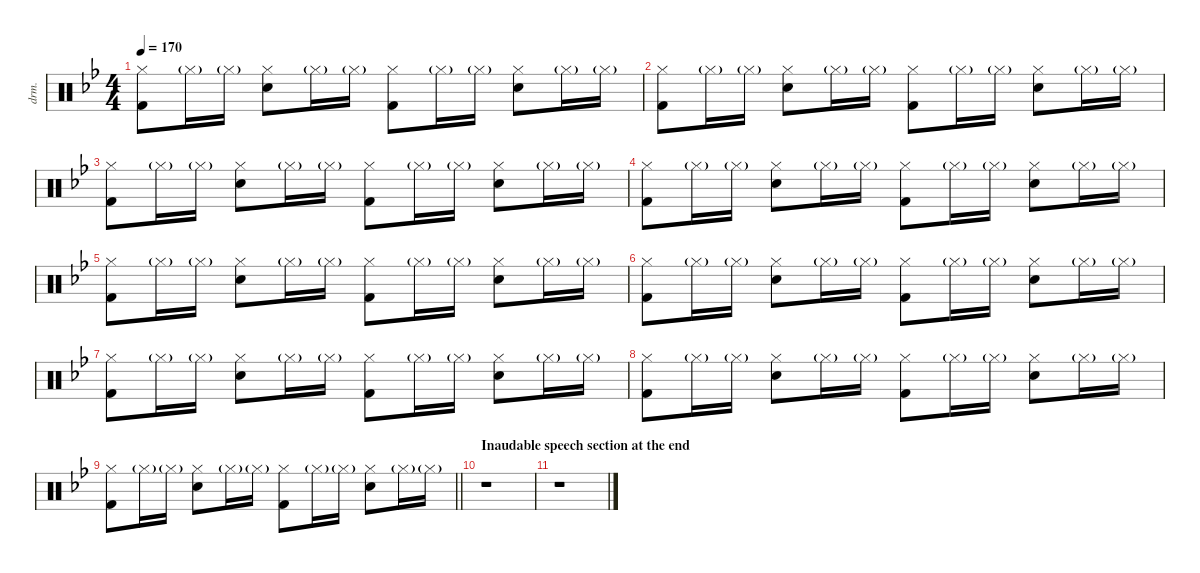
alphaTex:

\defaultSystemsLayout 4
\hideDynamics
\bracketExtendMode nobrackets
\otherSystemsTrackNameOrientation horizontal
\track ("Drums" "drm.") {instrument percussion}
\staff {score}
\articulation defaults
\ts (4 4)
\tempo 170
\clef neutral
\ks bb
("Hi-Hat (closed)"{acc forcenatural} "Kick (hit) 2"{acc forcenatural}).8{dy f beam Down} "Hi-Hat (closed)"{g acc forcenatural}.16{dy mf beam Down} "Hi-Hat (closed)"{g acc forcenatural}.16{beam Down} ("Hi-Hat (closed)"{acc forcenatural} "Snare (hit) 2"{acc forcenatural}).8{dy mp beam Down} "Hi-Hat (closed)"{g acc forcenatural}.16{dy mf beam Down} "Hi-Hat (closed)"{g acc forcenatural}.16{beam Down} ("Hi-Hat (closed)"{acc forcenatural} "Kick (hit) 2"{acc forcenatural}).8{dy f beam Down} "Hi-Hat (closed)"{g acc forcenatural}.16{dy mf beam Down} "Hi-Hat (closed)"{g acc forcenatural}.16{beam Down} ("Hi-Hat (closed)"{acc forcenatural} "Snare (hit) 2"{acc forcenatural}).8{dy mp beam Down} "Hi-Hat (closed)"{g acc forcenatural}.16{dy mf beam Down} "Hi-Hat (closed)"{g acc forcenatural}.16{beam Down} |
("Hi-Hat (closed)"{acc forcenatural} "Kick (hit) 2"{acc forcenatural}).8{dy f beam Down} "Hi-Hat (closed)"{g acc forcenatural}.16{dy mf beam Down} "Hi-Hat (closed)"{g acc forcenatural}.16{beam Down} ("Hi-Hat (closed)"{acc forcenatural} "Snare (hit) 2"{acc forcenatural}).8{dy mp beam Down} "Hi-Hat (closed)"{g acc forcenatural}.16{dy mf beam Down} "Hi-Hat (closed)"{g acc forcenatural}.16{beam Down} ("Hi-Hat (closed)"{acc forcenatural} "Kick (hit) 2"{acc forcenatural}).8{dy f beam Down} "Hi-Hat (closed)"{g acc forcenatural}.16{dy mf beam Down} "Hi-Hat (closed)"{g acc forcenatural}.16{beam Down} ("Hi-Hat (closed)"{acc forcenatural} "Snare (hit) 2"{acc forcenatural}).8{dy mp beam Down} "Hi-Hat (closed)"{g acc forcenatural}.16{dy mf beam Down} "Hi-Hat (closed)"{g acc forcenatural}.16{beam Down} |
("Hi-Hat (closed)"{acc forcenatural} "Kick (hit) 2"{acc forcenatural}).8{dy f beam Down} "Hi-Hat (closed)"{g acc forcenatural}.16{dy mf beam Down} "Hi-Hat (closed)"{g acc forcenatural}.16{beam Down} ("Hi-Hat (closed)"{acc forcenatural} "Snare (hit) 2"{acc forcenatural}).8{dy mp beam Down} "Hi-Hat (closed)"{g acc forcenatural}.16{dy mf beam Down} "Hi-Hat (closed)"{g acc forcenatural}.16{beam Down} ("Hi-Hat (closed)"{acc forcenatural} "Kick (hit) 2"{acc forcenatural}).8{dy f beam Down} "Hi-Hat (closed)"{g acc forcenatural}.16{dy mf beam Down} "Hi-Hat (closed)"{g acc forcenatural}.16{beam Down} ("Hi-Hat (closed)"{acc forcenatural} "Snare (hit) 2"{acc forcenatural}).8{dy mp beam Down} "Hi-Hat (closed)"{g acc forcenatural}.16{dy mf beam Down} "Hi-Hat (closed)"{g acc forcenatural}.16{beam Down} |
("Hi-Hat (closed)"{acc forcenatural} "Kick (hit) 2"{acc forcenatural}).8{dy f beam Down} "Hi-Hat (closed)"{g acc forcenatural}.16{dy mf beam Down} "Hi-Hat (closed)"{g acc forcenatural}.16{beam Down} ("Hi-Hat (closed)"{acc forcenatural} "Snare (hit) 2"{acc forcenatural}).8{dy mp beam Down} "Hi-Hat (closed)"{g acc forcenatural}.16{dy mf beam Down} "Hi-Hat (closed)"{g acc forcenatural}.16{beam Down} ("Hi-Hat (closed)"{acc forcenatural} "Kick (hit) 2"{acc forcenatural}).8{dy f beam Down} "Hi-Hat (closed)"{g acc forcenatural}.16{dy mf beam Down} "Hi-Hat (closed)"{g acc forcenatural}.16{beam Down} ("Hi-Hat (closed)"{acc forcenatural} "Snare (hit) 2"{acc forcenatural}).8{dy mp beam Down} "Hi-Hat (closed)"{g acc forcenatural}.16{dy mf beam Down} "Hi-Hat (closed)"{g acc forcenatural}.16{beam Down} |
("Hi-Hat (closed)"{acc forcenatural} "Kick (hit) 2"{acc forcenatural}).8{dy f beam Down} "Hi-Hat (closed)"{g acc forcenatural}.16{dy mf beam Down} "Hi-Hat (closed)"{g acc forcenatural}.16{beam Down} ("Hi-Hat (closed)"{acc forcenatural} "Snare (hit) 2"{acc forcenatural}).8{dy mp beam Down} "Hi-Hat (closed)"{g acc forcenatural}.16{dy mf beam Down} "Hi-Hat (closed)"{g acc forcenatural}.16{beam Down} ("Hi-Hat (closed)"{acc forcenatural} "Kick (hit) 2"{acc forcenatural}).8{dy f beam Down} "Hi-Hat (closed)"{g acc forcenatural}.16{dy mf beam Down} "Hi-Hat (closed)"{g acc forcenatural}.16{beam Down} ("Hi-Hat (closed)"{acc forcenatural} "Snare (hit) 2"{acc forcenatural}).8{dy mp beam Down} "Hi-Hat (closed)"{g acc forcenatural}.16{dy mf beam Down} "Hi-Hat (closed)"{g acc forcenatural}.16{beam Down} |
("Hi-Hat (closed)"{acc forcenatural} "Kick (hit) 2"{acc forcenatural}).8{dy f beam Down} "Hi-Hat (closed)"{g acc forcenatural}.16{dy mf beam Down} "Hi-Hat (closed)"{g acc forcenatural}.16{beam Down} ("Hi-Hat (closed)"{acc forcenatural} "Snare (hit) 2"{acc forcenatural}).8{dy mp beam Down} "Hi-Hat (closed)"{g acc forcenatural}.16{dy mf beam Down} "Hi-Hat (closed)"{g acc forcenatural}.16{beam Down} ("Hi-Hat (closed)"{acc forcenatural} "Kick (hit) 2"{acc forcenatural}).8{dy f beam Down} "Hi-Hat (closed)"{g acc forcenatural}.16{dy mf beam Down} "Hi-Hat (closed)"{g acc forcenatural}.16{beam Down} ("Hi-Hat (closed)"{acc forcenatural} "Snare (hit) 2"{acc forcenatural}).8{dy mp beam Down} "Hi-Hat (closed)"{g acc forcenatural}.16{dy mf beam Down} "Hi-Hat (closed)"{g acc forcenatural}.16{beam Down} |
("Hi-Hat (closed)"{acc forcenatural} "Kick (hit) 2"{acc forcenatural}).8{dy f beam Down} "Hi-Hat (closed)"{g acc forcenatural}.16{dy mf beam Down} "Hi-Hat (closed)"{g acc forcenatural}.16{beam Down} ("Hi-Hat (closed)"{acc forcenatural} "Snare (hit) 2"{acc forcenatural}).8{dy mp beam Down} "Hi-Hat (closed)"{g acc forcenatural}.16{dy mf beam Down} "Hi-Hat (closed)"{g acc forcenatural}.16{beam Down} ("Hi-Hat (closed)"{acc forcenatural} "Kick (hit) 2"{acc forcenatural}).8{dy f beam Down} "Hi-Hat (closed)"{g acc forcenatural}.16{dy mf beam Down} "Hi-Hat (closed)"{g acc forcenatural}.16{beam Down} ("Hi-Hat (closed)"{acc forcenatural} "Snare (hit) 2"{acc forcenatural}).8{dy mp beam Down} "Hi-Hat (closed)"{g acc forcenatural}.16{dy mf beam Down} "Hi-Hat (closed)"{g acc forcenatural}.16{beam Down} |
("Hi-Hat (closed)"{acc forcenatural} "Kick (hit) 2"{acc forcenatural}).8{dy f beam Down} "Hi-Hat (closed)"{g acc forcenatural}.16{dy mf beam Down} "Hi-Hat (closed)"{g acc forcenatural}.16{beam Down} ("Hi-Hat (closed)"{acc forcenatural} "Snare (hit) 2"{acc forcenatural}).8{dy mp beam Down} "Hi-Hat (closed)"{g acc forcenatural}.16{dy mf beam Down} "Hi-Hat (closed)"{g acc forcenatural}.16{beam Down} ("Hi-Hat (closed)"{acc forcenatural} "Kick (hit) 2"{acc forcenatural}).8{dy f beam Down} "Hi-Hat (closed)"{g acc forcenatural}.16{dy mf beam Down} "Hi-Hat (closed)"{g acc forcenatural}.16{beam Down} ("Hi-Hat (closed)"{acc forcenatural} "Snare (hit) 2"{acc forcenatural}).8{dy mp beam Down} "Hi-Hat (closed)"{g acc forcenatural}.16{dy mf beam Down} "Hi-Hat (closed)"{g acc forcenatural}.16{beam Down} |
\barLineRight lightlight
("Hi-Hat (closed)"{acc forcenatural} "Kick (hit) 2"{acc forcenatural}).8{dy f beam Down} "Hi-Hat (closed)"{g acc forcenatural}.16{dy mf beam Down} "Hi-Hat (closed)"{g acc forcenatural}.16{beam Down} ("Hi-Hat (closed)"{acc forcenatural} "Snare (hit) 2"{acc forcenatural}).8{dy mp beam Down} "Hi-Hat (closed)"{g acc forcenatural}.16{dy mf beam Down} "Hi-Hat (closed)"{g acc forcenatural}.16{beam Down} ("Hi-Hat (closed)"{acc forcenatural} "Kick (hit) 2"{acc forcenatural}).8{dy f beam Down} "Hi-Hat (closed)"{g acc forcenatural}.16{dy mf beam Down} "Hi-Hat (closed)"{g acc forcenatural}.16{beam Down} ("Hi-Hat (closed)"{acc forcenatural} "Snare (hit) 2"{acc forcenatural}).8{dy mp beam Down} "Hi-Hat (closed)"{g acc forcenatural}.16{dy mf beam Down} "Hi-Hat (closed)"{g acc forcenatural}.16{beam Down} |
\section ("" "Inaudable speech section at the end")
r.1{beam Down} |
r.1{beam Down}
